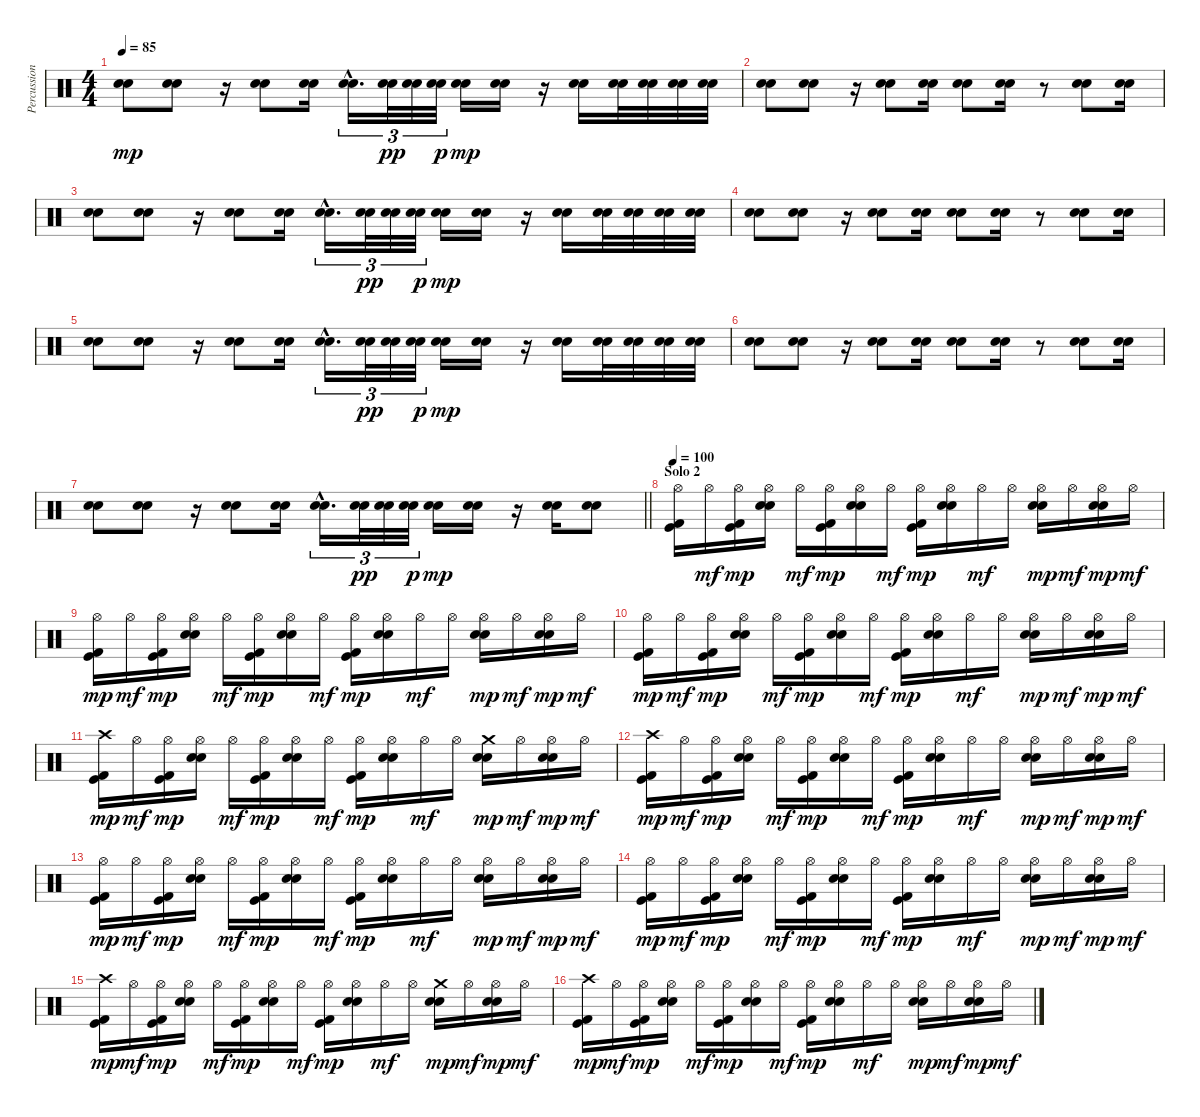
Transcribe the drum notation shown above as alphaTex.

\track ("Percussion" "Percussion") {instrument percussion}
\staff {score}
\articulation defaults
\ts (4 4)
\tempo 85
\clef neutral
\ks c
("Snare (hit) 2" "Electric Snare (hit)").8{dy mp} ("Snare (hit) 2" "Electric Snare (hit)").8 r.16 ("Snare (hit) 2" "Electric Snare (hit)").8 ("Snare (hit) 2" "Electric Snare (hit)").16 ("Snare (hit) 2"{hac} "Electric Snare (hit)"{hac}).16{d tu (3 2)} ("Snare (hit) 2" "Electric Snare (hit)").32{tu (3 2) dy pp} ("Snare (hit) 2" "Electric Snare (hit)").32{tu (3 2)} ("Snare (hit) 2" "Electric Snare (hit)").32{tu (3 2) dy p} ("Snare (hit) 2" "Electric Snare (hit)").16{dy mp} ("Snare (hit) 2" "Electric Snare (hit)").16 r.16 ("Snare (hit) 2" "Electric Snare (hit)").16 ("Snare (hit) 2" "Electric Snare (hit)").32 ("Snare (hit) 2" "Electric Snare (hit)").32 ("Snare (hit) 2" "Electric Snare (hit)").32 ("Snare (hit) 2" "Electric Snare (hit)").32 |
("Snare (hit) 2" "Electric Snare (hit)").8 ("Snare (hit) 2" "Electric Snare (hit)").8 r.16 ("Snare (hit) 2" "Electric Snare (hit)").8 ("Snare (hit) 2" "Electric Snare (hit)").16 ("Snare (hit) 2" "Electric Snare (hit)").8 ("Snare (hit) 2" "Electric Snare (hit)").16 r.8 ("Snare (hit) 2" "Electric Snare (hit)").8 ("Snare (hit) 2" "Electric Snare (hit)").16 |
("Snare (hit) 2" "Electric Snare (hit)").8 ("Snare (hit) 2" "Electric Snare (hit)").8 r.16 ("Snare (hit) 2" "Electric Snare (hit)").8 ("Snare (hit) 2" "Electric Snare (hit)").16 ("Snare (hit) 2"{hac} "Electric Snare (hit)"{hac}).16{d tu (3 2)} ("Snare (hit) 2" "Electric Snare (hit)").32{tu (3 2) dy pp} ("Snare (hit) 2" "Electric Snare (hit)").32{tu (3 2)} ("Snare (hit) 2" "Electric Snare (hit)").32{tu (3 2) dy p} ("Snare (hit) 2" "Electric Snare (hit)").16{dy mp} ("Snare (hit) 2" "Electric Snare (hit)").16 r.16 ("Snare (hit) 2" "Electric Snare (hit)").16 ("Snare (hit) 2" "Electric Snare (hit)").32 ("Snare (hit) 2" "Electric Snare (hit)").32 ("Snare (hit) 2" "Electric Snare (hit)").32 ("Snare (hit) 2" "Electric Snare (hit)").32 |
("Snare (hit) 2" "Electric Snare (hit)").8 ("Snare (hit) 2" "Electric Snare (hit)").8 r.16 ("Snare (hit) 2" "Electric Snare (hit)").8 ("Snare (hit) 2" "Electric Snare (hit)").16 ("Snare (hit) 2" "Electric Snare (hit)").8 ("Snare (hit) 2" "Electric Snare (hit)").16 r.8 ("Snare (hit) 2" "Electric Snare (hit)").8 ("Snare (hit) 2" "Electric Snare (hit)").16 |
("Snare (hit) 2" "Electric Snare (hit)").8 ("Snare (hit) 2" "Electric Snare (hit)").8 r.16 ("Snare (hit) 2" "Electric Snare (hit)").8 ("Snare (hit) 2" "Electric Snare (hit)").16 ("Snare (hit) 2"{hac} "Electric Snare (hit)"{hac}).16{d tu (3 2)} ("Snare (hit) 2" "Electric Snare (hit)").32{tu (3 2) dy pp} ("Snare (hit) 2" "Electric Snare (hit)").32{tu (3 2)} ("Snare (hit) 2" "Electric Snare (hit)").32{tu (3 2) dy p} ("Snare (hit) 2" "Electric Snare (hit)").16{dy mp} ("Snare (hit) 2" "Electric Snare (hit)").16 r.16 ("Snare (hit) 2" "Electric Snare (hit)").16 ("Snare (hit) 2" "Electric Snare (hit)").32 ("Snare (hit) 2" "Electric Snare (hit)").32 ("Snare (hit) 2" "Electric Snare (hit)").32 ("Snare (hit) 2" "Electric Snare (hit)").32 |
("Snare (hit) 2" "Electric Snare (hit)").8 ("Snare (hit) 2" "Electric Snare (hit)").8 r.16 ("Snare (hit) 2" "Electric Snare (hit)").8 ("Snare (hit) 2" "Electric Snare (hit)").16 ("Snare (hit) 2" "Electric Snare (hit)").8 ("Snare (hit) 2" "Electric Snare (hit)").16 r.8 ("Snare (hit) 2" "Electric Snare (hit)").8 ("Snare (hit) 2" "Electric Snare (hit)").16 |
\barLineRight lightlight
("Snare (hit) 2" "Electric Snare (hit)").8 ("Snare (hit) 2" "Electric Snare (hit)").8 r.16 ("Snare (hit) 2" "Electric Snare (hit)").8 ("Snare (hit) 2" "Electric Snare (hit)").16 ("Snare (hit) 2"{hac} "Electric Snare (hit)"{hac}).16{d tu (3 2)} ("Snare (hit) 2" "Electric Snare (hit)").32{tu (3 2) dy pp} ("Snare (hit) 2" "Electric Snare (hit)").32{tu (3 2)} ("Snare (hit) 2" "Electric Snare (hit)").32{tu (3 2) dy p} ("Snare (hit) 2" "Electric Snare (hit)").16{dy mp} ("Snare (hit) 2" "Electric Snare (hit)").16 r.16 ("Snare (hit) 2" "Electric Snare (hit)").16 ("Snare (hit) 2" "Electric Snare (hit)").8 |
\section ("" "Solo 2")
\tempo 100
("Hi-Hat (open)" "Kick (hit)" "Kick (hit) 2").16 "Hi-Hat (open)".16{dy mf} ("Hi-Hat (open)" "Kick (hit)" "Kick (hit) 2").16{dy mp} ("Hi-Hat (open)" "Snare (hit) 2" "Electric Snare (hit)").16 "Hi-Hat (open)".16{dy mf} ("Hi-Hat (open)" "Kick (hit)" "Kick (hit) 2").16{dy mp} ("Hi-Hat (open)" "Snare (hit) 2" "Electric Snare (hit)").16 "Hi-Hat (open)".16{dy mf} ("Hi-Hat (open)" "Kick (hit)" "Kick (hit) 2").16{dy mp} ("Hi-Hat (open)" "Snare (hit) 2" "Electric Snare (hit)").16 "Hi-Hat (open)".16{dy mf} "Hi-Hat (open)".16 ("Hi-Hat (open)" "Snare (hit) 2" "Electric Snare (hit)").16{dy mp} "Hi-Hat (open)".16{dy mf} ("Hi-Hat (open)" "Snare (hit) 2" "Electric Snare (hit)").16{dy mp} "Hi-Hat (open)".16{dy mf} |
("Hi-Hat (open)" "Kick (hit)" "Kick (hit) 2").16{dy mp} "Hi-Hat (open)".16{dy mf} ("Hi-Hat (open)" "Kick (hit)" "Kick (hit) 2").16{dy mp} ("Hi-Hat (open)" "Snare (hit) 2" "Electric Snare (hit)").16 "Hi-Hat (open)".16{dy mf} ("Hi-Hat (open)" "Kick (hit)" "Kick (hit) 2").16{dy mp} ("Hi-Hat (open)" "Snare (hit) 2" "Electric Snare (hit)").16 "Hi-Hat (open)".16{dy mf} ("Hi-Hat (open)" "Kick (hit)" "Kick (hit) 2").16{dy mp} ("Hi-Hat (open)" "Snare (hit) 2" "Electric Snare (hit)").16 "Hi-Hat (open)".16{dy mf} "Hi-Hat (open)".16 ("Hi-Hat (open)" "Snare (hit) 2" "Electric Snare (hit)").16{dy mp} "Hi-Hat (open)".16{dy mf} ("Hi-Hat (open)" "Snare (hit) 2" "Electric Snare (hit)").16{dy mp} "Hi-Hat (open)".16{dy mf} |
("Hi-Hat (open)" "Kick (hit)" "Kick (hit) 2").16{dy mp} "Hi-Hat (open)".16{dy mf} ("Hi-Hat (open)" "Kick (hit)" "Kick (hit) 2").16{dy mp} ("Hi-Hat (open)" "Snare (hit) 2" "Electric Snare (hit)").16 "Hi-Hat (open)".16{dy mf} ("Hi-Hat (open)" "Kick (hit)" "Kick (hit) 2").16{dy mp} ("Hi-Hat (open)" "Snare (hit) 2" "Electric Snare (hit)").16 "Hi-Hat (open)".16{dy mf} ("Hi-Hat (open)" "Kick (hit)" "Kick (hit) 2").16{dy mp} ("Hi-Hat (open)" "Snare (hit) 2" "Electric Snare (hit)").16 "Hi-Hat (open)".16{dy mf} "Hi-Hat (open)".16 ("Hi-Hat (open)" "Snare (hit) 2" "Electric Snare (hit)").16{dy mp} "Hi-Hat (open)".16{dy mf} ("Hi-Hat (open)" "Snare (hit) 2" "Electric Snare (hit)").16{dy mp} "Hi-Hat (open)".16{dy mf} |
("Crash high (hit)" "Kick (hit)" "Kick (hit) 2").16{dy mp} "Hi-Hat (open)".16{dy mf} ("Hi-Hat (open)" "Kick (hit)" "Kick (hit) 2").16{dy mp} ("Hi-Hat (open)" "Snare (hit) 2" "Electric Snare (hit)").16 "Hi-Hat (open)".16{dy mf} ("Hi-Hat (open)" "Kick (hit)" "Kick (hit) 2").16{dy mp} ("Hi-Hat (open)" "Snare (hit) 2" "Electric Snare (hit)").16 "Hi-Hat (open)".16{dy mf} ("Hi-Hat (open)" "Kick (hit)" "Kick (hit) 2").16{dy mp} ("Hi-Hat (open)" "Snare (hit) 2" "Electric Snare (hit)").16 "Hi-Hat (open)".16{dy mf} "Hi-Hat (open)".16 ("Crash medium (hit)" "Snare (hit) 2" "Electric Snare (hit)").16{dy mp} "Hi-Hat (open)".16{dy mf} ("Hi-Hat (open)" "Snare (hit) 2" "Electric Snare (hit)").16{dy mp} "Hi-Hat (open)".16{dy mf} |
("Crash high (hit)" "Kick (hit)" "Kick (hit) 2").16{dy mp} "Hi-Hat (open)".16{dy mf} ("Hi-Hat (open)" "Kick (hit)" "Kick (hit) 2").16{dy mp} ("Hi-Hat (open)" "Snare (hit) 2" "Electric Snare (hit)").16 "Hi-Hat (open)".16{dy mf} ("Hi-Hat (open)" "Kick (hit)" "Kick (hit) 2").16{dy mp} ("Hi-Hat (open)" "Snare (hit) 2" "Electric Snare (hit)").16 "Hi-Hat (open)".16{dy mf} ("Hi-Hat (open)" "Kick (hit)" "Kick (hit) 2").16{dy mp} ("Hi-Hat (open)" "Snare (hit) 2" "Electric Snare (hit)").16 "Hi-Hat (open)".16{dy mf} "Hi-Hat (open)".16 ("Hi-Hat (open)" "Snare (hit) 2" "Electric Snare (hit)").16{dy mp} "Hi-Hat (open)".16{dy mf} ("Hi-Hat (open)" "Snare (hit) 2" "Electric Snare (hit)").16{dy mp} "Hi-Hat (open)".16{dy mf} |
("Hi-Hat (open)" "Kick (hit)" "Kick (hit) 2").16{dy mp} "Hi-Hat (open)".16{dy mf} ("Hi-Hat (open)" "Kick (hit)" "Kick (hit) 2").16{dy mp} ("Hi-Hat (open)" "Snare (hit) 2" "Electric Snare (hit)").16 "Hi-Hat (open)".16{dy mf} ("Hi-Hat (open)" "Kick (hit)" "Kick (hit) 2").16{dy mp} ("Hi-Hat (open)" "Snare (hit) 2" "Electric Snare (hit)").16 "Hi-Hat (open)".16{dy mf} ("Hi-Hat (open)" "Kick (hit)" "Kick (hit) 2").16{dy mp} ("Hi-Hat (open)" "Snare (hit) 2" "Electric Snare (hit)").16 "Hi-Hat (open)".16{dy mf} "Hi-Hat (open)".16 ("Hi-Hat (open)" "Snare (hit) 2" "Electric Snare (hit)").16{dy mp} "Hi-Hat (open)".16{dy mf} ("Hi-Hat (open)" "Snare (hit) 2" "Electric Snare (hit)").16{dy mp} "Hi-Hat (open)".16{dy mf} |
("Hi-Hat (open)" "Kick (hit)" "Kick (hit) 2").16{dy mp} "Hi-Hat (open)".16{dy mf} ("Hi-Hat (open)" "Kick (hit)" "Kick (hit) 2").16{dy mp} ("Hi-Hat (open)" "Snare (hit) 2" "Electric Snare (hit)").16 "Hi-Hat (open)".16{dy mf} ("Hi-Hat (open)" "Kick (hit)" "Kick (hit) 2").16{dy mp} ("Hi-Hat (open)" "Snare (hit) 2" "Electric Snare (hit)").16 "Hi-Hat (open)".16{dy mf} ("Hi-Hat (open)" "Kick (hit)" "Kick (hit) 2").16{dy mp} ("Hi-Hat (open)" "Snare (hit) 2" "Electric Snare (hit)").16 "Hi-Hat (open)".16{dy mf} "Hi-Hat (open)".16 ("Hi-Hat (open)" "Snare (hit) 2" "Electric Snare (hit)").16{dy mp} "Hi-Hat (open)".16{dy mf} ("Hi-Hat (open)" "Snare (hit) 2" "Electric Snare (hit)").16{dy mp} "Hi-Hat (open)".16{dy mf} |
("Crash high (hit)" "Kick (hit)" "Kick (hit) 2").16{dy mp} "Hi-Hat (open)".16{dy mf} ("Hi-Hat (open)" "Kick (hit)" "Kick (hit) 2").16{dy mp} ("Hi-Hat (open)" "Snare (hit) 2" "Electric Snare (hit)").16 "Hi-Hat (open)".16{dy mf} ("Hi-Hat (open)" "Kick (hit)" "Kick (hit) 2").16{dy mp} ("Hi-Hat (open)" "Snare (hit) 2" "Electric Snare (hit)").16 "Hi-Hat (open)".16{dy mf} ("Hi-Hat (open)" "Kick (hit)" "Kick (hit) 2").16{dy mp} ("Hi-Hat (open)" "Snare (hit) 2" "Electric Snare (hit)").16 "Hi-Hat (open)".16{dy mf} "Hi-Hat (open)".16 ("Crash medium (hit)" "Snare (hit) 2" "Electric Snare (hit)").16{dy mp} "Hi-Hat (open)".16{dy mf} ("Hi-Hat (open)" "Snare (hit) 2" "Electric Snare (hit)").16{dy mp} "Hi-Hat (open)".16{dy mf} |
("Crash high (hit)" "Kick (hit)" "Kick (hit) 2").16{dy mp} "Hi-Hat (open)".16{dy mf} ("Hi-Hat (open)" "Kick (hit)" "Kick (hit) 2").16{dy mp} ("Hi-Hat (open)" "Snare (hit) 2" "Electric Snare (hit)").16 "Hi-Hat (open)".16{dy mf} ("Hi-Hat (open)" "Kick (hit)" "Kick (hit) 2").16{dy mp} ("Hi-Hat (open)" "Snare (hit) 2" "Electric Snare (hit)").16 "Hi-Hat (open)".16{dy mf} ("Hi-Hat (open)" "Kick (hit)" "Kick (hit) 2").16{dy mp} ("Hi-Hat (open)" "Snare (hit) 2" "Electric Snare (hit)").16 "Hi-Hat (open)".16{dy mf} "Hi-Hat (open)".16 ("Hi-Hat (open)" "Snare (hit) 2" "Electric Snare (hit)").16{dy mp} "Hi-Hat (open)".16{dy mf} ("Hi-Hat (open)" "Snare (hit) 2" "Electric Snare (hit)").16{dy mp} "Hi-Hat (open)".16{dy mf}
